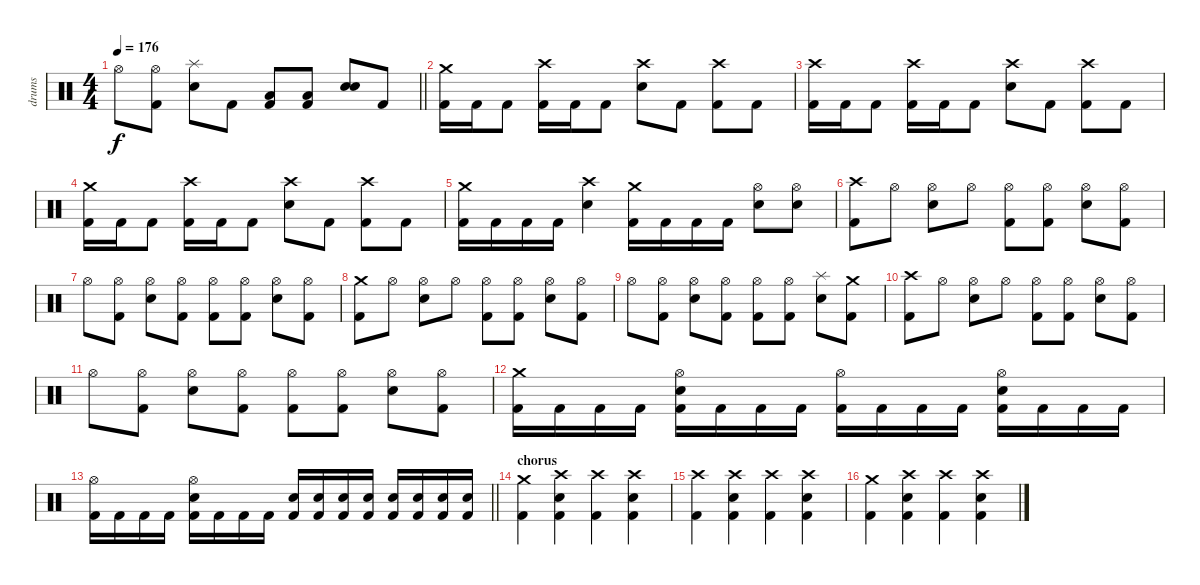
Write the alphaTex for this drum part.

\track ("drums" "drums") {instrument percussion}
\staff {score}
\articulation defaults
\ts (4 4)
\tempo 176
\clef neutral
\barLineRight lightlight
\ks c "Hi-Hat (open)".8{dy f}
("Hi-Hat (open)" "Kick (hit) 2").8 ("Splash (hit)" "Snare (hit) 2").8 "Kick (hit) 2".8 ("Low Floor Tom (hit)" "Kick (hit) 2").8 ("Low Floor Tom (hit)" "Kick (hit) 2").8 ("Snare (hit) 2" "Snare (hit) 2").8 "Kick (hit) 2".8 |
("Crash medium (hit)" "Kick (hit) 2").16 "Kick (hit) 2".16 "Kick (hit) 2".8 ("Crash high (hit)" "Kick (hit) 2").16 "Kick (hit) 2".16 "Kick (hit) 2".8 ("Crash high (hit)" "Snare (hit) 2").8 "Kick (hit) 2".8 ("Crash high (hit)" "Kick (hit) 2").8 "Kick (hit) 2".8 |
("Crash high (hit)" "Kick (hit) 2").16 "Kick (hit) 2".16 "Kick (hit) 2".8 ("Crash high (hit)" "Kick (hit) 2").16 "Kick (hit) 2".16 "Kick (hit) 2".8 ("Crash high (hit)" "Snare (hit) 2").8 "Kick (hit) 2".8 ("Crash high (hit)" "Kick (hit) 2").8 "Kick (hit) 2".8 |
("Crash medium (hit)" "Kick (hit) 2").16 "Kick (hit) 2".16 "Kick (hit) 2".8 ("Crash high (hit)" "Kick (hit) 2").16 "Kick (hit) 2".16 "Kick (hit) 2".8 ("Crash high (hit)" "Snare (hit) 2").8 "Kick (hit) 2".8 ("Crash high (hit)" "Kick (hit) 2").8 "Kick (hit) 2".8 |
("Crash medium (hit)" "Kick (hit) 2").16 "Kick (hit) 2".16 "Kick (hit) 2".16 "Kick (hit) 2".16 ("Crash high (hit)" "Snare (hit) 2").4 ("Crash medium (hit)" "Kick (hit) 2").16 "Kick (hit) 2".16 "Kick (hit) 2".16 "Kick (hit) 2".16 ("Hi-Hat (open)" "Snare (hit) 2").8 ("Hi-Hat (open)" "Snare (hit) 2").8 |
("Crash high (hit)" "Kick (hit) 2").8 "Hi-Hat (open)".8 ("Hi-Hat (open)" "Snare (hit) 2").8 "Hi-Hat (open)".8 ("Hi-Hat (open)" "Kick (hit) 2").8 ("Hi-Hat (open)" "Kick (hit) 2").8 ("Hi-Hat (open)" "Snare (hit) 2").8 ("Hi-Hat (open)" "Kick (hit) 2").8 |
"Hi-Hat (open)".8 ("Hi-Hat (open)" "Kick (hit) 2").8 ("Hi-Hat (open)" "Snare (hit) 2").8 ("Hi-Hat (open)" "Kick (hit) 2").8 ("Hi-Hat (open)" "Kick (hit) 2").8 ("Hi-Hat (open)" "Kick (hit) 2").8 ("Hi-Hat (open)" "Snare (hit) 2").8 ("Hi-Hat (open)" "Kick (hit) 2").8 |
("Crash medium (hit)" "Kick (hit) 2").8 "Hi-Hat (open)".8 ("Hi-Hat (open)" "Snare (hit) 2").8 "Hi-Hat (open)".8 ("Hi-Hat (open)" "Kick (hit) 2").8 ("Hi-Hat (open)" "Kick (hit) 2").8 ("Hi-Hat (open)" "Snare (hit) 2").8 ("Hi-Hat (open)" "Kick (hit) 2").8 |
"Hi-Hat (open)".8 ("Hi-Hat (open)" "Kick (hit) 2").8 ("Hi-Hat (open)" "Snare (hit) 2").8 ("Hi-Hat (open)" "Kick (hit) 2").8 ("Hi-Hat (open)" "Kick (hit) 2").8 ("Hi-Hat (open)" "Kick (hit) 2").8 ("Splash (hit)" "Snare (hit) 2").8 ("Crash medium (hit)" "Kick (hit) 2").8 |
("Crash high (hit)" "Kick (hit) 2").8 "Hi-Hat (open)".8 ("Hi-Hat (open)" "Snare (hit) 2").8 "Hi-Hat (open)".8 ("Hi-Hat (open)" "Kick (hit) 2").8 ("Hi-Hat (open)" "Kick (hit) 2").8 ("Hi-Hat (open)" "Snare (hit) 2").8 ("Hi-Hat (open)" "Kick (hit) 2").8 |
"Hi-Hat (open)".8 ("Hi-Hat (open)" "Kick (hit) 2").8 ("Hi-Hat (open)" "Snare (hit) 2").8 ("Hi-Hat (open)" "Kick (hit) 2").8 ("Hi-Hat (open)" "Kick (hit) 2").8 ("Hi-Hat (open)" "Kick (hit) 2").8 ("Hi-Hat (open)" "Snare (hit) 2").8 ("Hi-Hat (open)" "Kick (hit) 2").8 |
("Crash medium (hit)" "Kick (hit) 2").16 "Kick (hit) 2".16 "Kick (hit) 2".16 "Kick (hit) 2".16 ("Hi-Hat (open)" "Snare (hit) 2" "Kick (hit) 2").16 "Kick (hit) 2".16 "Kick (hit) 2".16 "Kick (hit) 2".16 ("Hi-Hat (open)" "Kick (hit) 2").16 "Kick (hit) 2".16 "Kick (hit) 2".16 "Kick (hit) 2".16 ("Hi-Hat (open)" "Snare (hit) 2" "Kick (hit) 2").16 "Kick (hit) 2".16 "Kick (hit) 2".16 "Kick (hit) 2".16 |
\barLineRight lightlight
("Hi-Hat (open)" "Kick (hit) 2").16 "Kick (hit) 2".16 "Kick (hit) 2".16 "Kick (hit) 2".16 ("Hi-Hat (open)" "Snare (hit) 2" "Kick (hit) 2").16 "Kick (hit) 2".16 "Kick (hit) 2".16 "Kick (hit) 2".16 ("Snare (hit) 2" "Kick (hit) 2").16 ("Snare (hit) 2" "Kick (hit) 2").16 ("Snare (hit) 2" "Kick (hit) 2").16 ("Snare (hit) 2" "Kick (hit) 2").16 ("Snare (hit) 2" "Kick (hit) 2").16 ("Snare (hit) 2" "Kick (hit) 2").16 ("Snare (hit) 2" "Kick (hit) 2").16 ("Snare (hit) 2" "Kick (hit) 2").16 |
\section ("" "chorus")
("Crash medium (hit)" "Kick (hit) 2").4 ("Crash high (hit)" "Snare (hit) 2" "Kick (hit) 2").4 ("Crash high (hit)" "Kick (hit) 2").4 ("Crash high (hit)" "Snare (hit) 2" "Kick (hit) 2").4 |
("Crash high (hit)" "Kick (hit) 2").4 ("Crash high (hit)" "Snare (hit) 2" "Kick (hit) 2").4 ("Crash high (hit)" "Kick (hit) 2").4 ("Crash high (hit)" "Snare (hit) 2" "Kick (hit) 2").4 |
("Crash medium (hit)" "Kick (hit) 2").4 ("Crash high (hit)" "Snare (hit) 2" "Kick (hit) 2").4 ("Crash high (hit)" "Kick (hit) 2").4 ("Crash high (hit)" "Snare (hit) 2" "Kick (hit) 2").4
